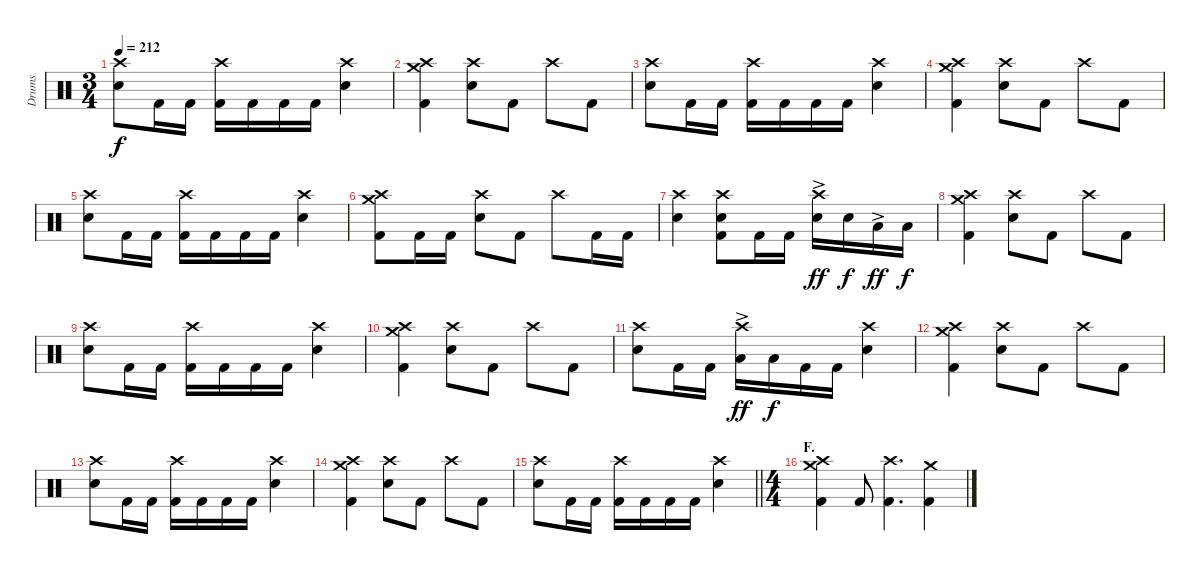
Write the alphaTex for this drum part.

\track ("Drums" "Drums") {instrument percussion}
\staff {score}
\articulation defaults
\ts (3 4)
\tempo 212
\clef neutral
\ks c
("Crash high (hit)" "Electric Snare (hit)").8{dy f} "Kick (hit) 2".16 "Kick (hit) 2".16 ("Crash high (hit)" "Kick (hit) 2").16 "Kick (hit) 2".16 "Kick (hit) 2".16 "Kick (hit) 2".16 ("Crash high (hit)" "Electric Snare (hit)").4 |
("Crash medium (hit)" "Crash high (hit)" "Kick (hit) 2").4 ("Crash high (hit)" "Electric Snare (hit)").8 "Kick (hit) 2".8 "Crash high (hit)".8 "Kick (hit) 2".8 |
("Crash high (hit)" "Electric Snare (hit)").8 "Kick (hit) 2".16 "Kick (hit) 2".16 ("Crash high (hit)" "Kick (hit) 2").16 "Kick (hit) 2".16 "Kick (hit) 2".16 "Kick (hit) 2".16 ("Crash high (hit)" "Electric Snare (hit)").4 |
("Crash medium (hit)" "Crash high (hit)" "Kick (hit) 2").4 ("Crash high (hit)" "Electric Snare (hit)").8 "Kick (hit) 2".8 "Crash high (hit)".8 "Kick (hit) 2".8 |
("Crash high (hit)" "Electric Snare (hit)").8 "Kick (hit) 2".16 "Kick (hit) 2".16 ("Crash high (hit)" "Kick (hit) 2").16 "Kick (hit) 2".16 "Kick (hit) 2".16 "Kick (hit) 2".16 ("Crash high (hit)" "Electric Snare (hit)").4 |
("Crash medium (hit)" "Crash high (hit)" "Kick (hit) 2").8 "Kick (hit) 2".16 "Kick (hit) 2".16 ("Crash high (hit)" "Electric Snare (hit)").8 "Kick (hit) 2".8 "Crash high (hit)".8 "Kick (hit) 2".16 "Kick (hit) 2".16 |
("Crash high (hit)" "Electric Snare (hit)").4 ("Crash high (hit)" "Electric Snare (hit)" "Kick (hit) 2").8 "Kick (hit) 2".16 "Kick (hit) 2".16 ("Crash high (hit)" "Electric Snare (hit)"{ac}).16{dy ff} "Electric Snare (hit)".16{dy f} "Low Tom (hit)"{ac}.16{dy ff} "Low Tom (hit)".16{dy f} |
("Crash medium (hit)" "Crash high (hit)" "Kick (hit) 2").4 ("Crash high (hit)" "Electric Snare (hit)").8 "Kick (hit) 2".8 "Crash high (hit)".8 "Kick (hit) 2".8 |
("Crash high (hit)" "Electric Snare (hit)").8 "Kick (hit) 2".16 "Kick (hit) 2".16 ("Crash high (hit)" "Kick (hit) 2").16 "Kick (hit) 2".16 "Kick (hit) 2".16 "Kick (hit) 2".16 ("Crash high (hit)" "Electric Snare (hit)").4 |
("Crash medium (hit)" "Crash high (hit)" "Kick (hit) 2").4 ("Crash high (hit)" "Electric Snare (hit)").8 "Kick (hit) 2".8 "Crash high (hit)".8 "Kick (hit) 2".8 |
("Crash high (hit)" "Electric Snare (hit)").8 "Kick (hit) 2".16 "Kick (hit) 2".16 ("Crash high (hit)" "Low Tom (hit)"{ac}).16{dy ff} "Low Tom (hit)".16{dy f} "Kick (hit) 2".16 "Kick (hit) 2".16 ("Crash high (hit)" "Electric Snare (hit)").4 |
("Crash medium (hit)" "Crash high (hit)" "Kick (hit) 2").4 ("Crash high (hit)" "Electric Snare (hit)").8 "Kick (hit) 2".8 "Crash high (hit)".8 "Kick (hit) 2".8 |
("Crash high (hit)" "Electric Snare (hit)").8 "Kick (hit) 2".16 "Kick (hit) 2".16 ("Crash high (hit)" "Kick (hit) 2").16 "Kick (hit) 2".16 "Kick (hit) 2".16 "Kick (hit) 2".16 ("Crash high (hit)" "Electric Snare (hit)").4 |
("Crash medium (hit)" "Crash high (hit)" "Kick (hit) 2").4 ("Crash high (hit)" "Electric Snare (hit)").8 "Kick (hit) 2".8 "Crash high (hit)".8 "Kick (hit) 2".8 |
\barLineRight lightlight
("Crash high (hit)" "Electric Snare (hit)").8 "Kick (hit) 2".16 "Kick (hit) 2".16 ("Crash high (hit)" "Kick (hit) 2").16 "Kick (hit) 2".16 "Kick (hit) 2".16 "Kick (hit) 2".16 ("Crash high (hit)" "Electric Snare (hit)").4 |
\ts (4 4)
\section ("" "F.")
("Crash medium (hit)" "Crash high (hit)" "Kick (hit) 2").4 "Kick (hit) 2".8 ("Crash high (hit)" "Kick (hit) 2").4{d} ("Crash medium (hit)" "Kick (hit) 2").4
